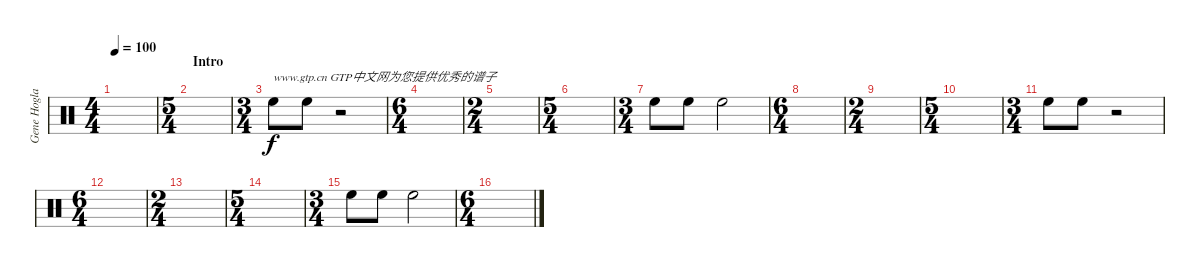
\track ("Gene Hoglan" "Gene Hogla") {instrument percussion}
\staff {score}
\articulation defaults
\ts (4 4)
\tempo 100
\clef neutral
\ks c
|
\ts (5 4)
\section ("" "Intro")
|
\ts (3 4)
"High Floor Tom (hit)".8{txt "www.gtp.cn GTP中文网为您提供优秀的谱子"} "High Floor Tom (hit)".8 r.2 |
\ts (6 4)
|
\ts (2 4)
|
\ts (5 4)
|
\ts (3 4)
"High Floor Tom (hit)".8 "High Floor Tom (hit)".8 "High Floor Tom (hit)".2 |
\ts (6 4)
|
\ts (2 4)
|
\ts (5 4)
|
\ts (3 4)
"High Floor Tom (hit)".8 "High Floor Tom (hit)".8 r.2 |
\ts (6 4)
|
\ts (2 4)
|
\ts (5 4)
|
\ts (3 4)
"High Floor Tom (hit)".8 "High Floor Tom (hit)".8 "High Floor Tom (hit)".2 |
\ts (6 4)
